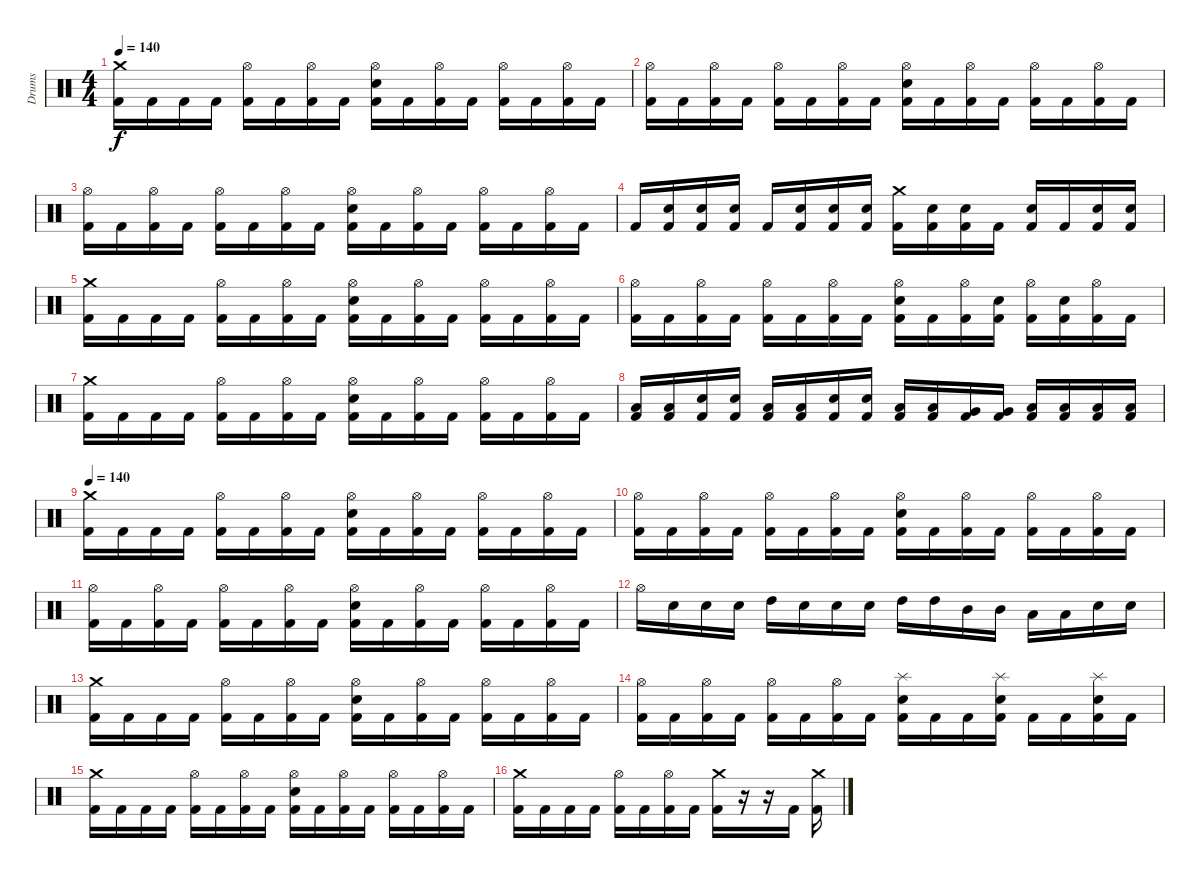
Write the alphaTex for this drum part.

\track ("Drums" "Drums") {instrument percussion}
\staff {score}
\articulation defaults
\ts (4 4)
\tempo 140
\clef neutral
\ks c
("Crash medium (hit)" "Kick (hit) 2").16{dy f} "Kick (hit) 2".16 "Kick (hit) 2".16 "Kick (hit) 2".16 ("Hi-Hat (open)" "Kick (hit) 2").16 "Kick (hit) 2".16 ("Hi-Hat (open)" "Kick (hit) 2").16 "Kick (hit) 2".16 ("Hi-Hat (open)" "Snare (hit) 2" "Kick (hit) 2").16 "Kick (hit) 2".16 ("Hi-Hat (open)" "Kick (hit) 2").16 "Kick (hit) 2".16 ("Hi-Hat (open)" "Kick (hit) 2").16 "Kick (hit) 2".16 ("Hi-Hat (open)" "Kick (hit) 2").16 "Kick (hit) 2".16 |
("Hi-Hat (open)" "Kick (hit) 2").16 "Kick (hit) 2".16 ("Hi-Hat (open)" "Kick (hit) 2").16 "Kick (hit) 2".16 ("Hi-Hat (open)" "Kick (hit) 2").16 "Kick (hit) 2".16 ("Hi-Hat (open)" "Kick (hit) 2").16 "Kick (hit) 2".16 ("Hi-Hat (open)" "Snare (hit) 2" "Kick (hit) 2").16 "Kick (hit) 2".16 ("Hi-Hat (open)" "Kick (hit) 2").16 "Kick (hit) 2".16 ("Hi-Hat (open)" "Kick (hit) 2").16 "Kick (hit) 2".16 ("Hi-Hat (open)" "Kick (hit) 2").16 "Kick (hit) 2".16 |
("Hi-Hat (open)" "Kick (hit) 2").16 "Kick (hit) 2".16 ("Hi-Hat (open)" "Kick (hit) 2").16 "Kick (hit) 2".16 ("Hi-Hat (open)" "Kick (hit) 2").16 "Kick (hit) 2".16 ("Hi-Hat (open)" "Kick (hit) 2").16 "Kick (hit) 2".16 ("Hi-Hat (open)" "Snare (hit) 2" "Kick (hit) 2").16 "Kick (hit) 2".16 ("Hi-Hat (open)" "Kick (hit) 2").16 "Kick (hit) 2".16 ("Hi-Hat (open)" "Kick (hit) 2").16 "Kick (hit) 2".16 ("Hi-Hat (open)" "Kick (hit) 2").16 "Kick (hit) 2".16 |
"Kick (hit) 2".16 ("Snare (hit) 2" "Kick (hit) 2").16 ("Snare (hit) 2" "Kick (hit) 2").16 ("Snare (hit) 2" "Kick (hit) 2").16 "Kick (hit) 2".16 ("Snare (hit) 2" "Kick (hit) 2").16 ("Snare (hit) 2" "Kick (hit) 2").16 ("Snare (hit) 2" "Kick (hit) 2").16 ("Crash medium (hit)" "Kick (hit) 2").16 ("Snare (hit) 2" "Kick (hit) 2").16 ("Snare (hit) 2" "Kick (hit) 2").16 "Kick (hit) 2".16 ("Snare (hit) 2" "Kick (hit) 2").16 "Kick (hit) 2".16 ("Snare (hit) 2" "Kick (hit) 2").16 ("Snare (hit) 2" "Kick (hit) 2").16 |
("Crash medium (hit)" "Kick (hit) 2").16 "Kick (hit) 2".16 "Kick (hit) 2".16 "Kick (hit) 2".16 ("Hi-Hat (open)" "Kick (hit) 2").16 "Kick (hit) 2".16 ("Hi-Hat (open)" "Kick (hit) 2").16 "Kick (hit) 2".16 ("Hi-Hat (open)" "Snare (hit) 2" "Kick (hit) 2").16 "Kick (hit) 2".16 ("Hi-Hat (open)" "Kick (hit) 2").16 "Kick (hit) 2".16 ("Hi-Hat (open)" "Kick (hit) 2").16 "Kick (hit) 2".16 ("Hi-Hat (open)" "Kick (hit) 2").16 "Kick (hit) 2".16 |
("Hi-Hat (open)" "Kick (hit) 2").16 "Kick (hit) 2".16 ("Hi-Hat (open)" "Kick (hit) 2").16 "Kick (hit) 2".16 ("Hi-Hat (open)" "Kick (hit) 2").16 "Kick (hit) 2".16 ("Hi-Hat (open)" "Kick (hit) 2").16 "Kick (hit) 2".16 ("Hi-Hat (open)" "Snare (hit) 2" "Kick (hit) 2").16 "Kick (hit) 2".16 ("Hi-Hat (open)" "Kick (hit) 2").16 ("Snare (hit) 2" "Kick (hit) 2").16 ("Hi-Hat (open)" "Kick (hit) 2").16 ("Snare (hit) 2" "Kick (hit) 2").16 ("Hi-Hat (open)" "Kick (hit) 2").16 "Kick (hit) 2".16 |
("Crash medium (hit)" "Kick (hit) 2").16 "Kick (hit) 2".16 "Kick (hit) 2".16 "Kick (hit) 2".16 ("Hi-Hat (open)" "Kick (hit) 2").16 "Kick (hit) 2".16 ("Hi-Hat (open)" "Kick (hit) 2").16 "Kick (hit) 2".16 ("Hi-Hat (open)" "Snare (hit) 2" "Kick (hit) 2").16 "Kick (hit) 2".16 ("Hi-Hat (open)" "Kick (hit) 2").16 "Kick (hit) 2".16 ("Hi-Hat (open)" "Kick (hit) 2").16 "Kick (hit) 2".16 ("Hi-Hat (open)" "Kick (hit) 2").16 "Kick (hit) 2".16 |
("Low Tom (hit)" "Kick (hit) 2").16 ("Low Tom (hit)" "Kick (hit) 2").16 ("Snare (hit) 2" "Kick (hit) 2").16 ("Snare (hit) 2" "Kick (hit) 2").16 ("Low Tom (hit)" "Kick (hit) 2").16 ("Low Tom (hit)" "Kick (hit) 2").16 ("Snare (hit) 2" "Kick (hit) 2").16 ("Snare (hit) 2" "Kick (hit) 2").16 ("Low Tom (hit)" "Kick (hit) 2").16 ("Low Tom (hit)" "Kick (hit) 2").16 ("Very Low Tom (hit)" "Kick (hit) 2").16 ("Very Low Tom (hit)" "Kick (hit) 2").16 ("Low Floor Tom (hit)" "Kick (hit) 2").16 ("Low Floor Tom (hit)" "Kick (hit) 2").16 ("Low Floor Tom (hit)" "Kick (hit) 2").16 ("Low Floor Tom (hit)" "Kick (hit) 2").16 |
\tempo 140
("Crash medium (hit)" "Kick (hit) 2").16 "Kick (hit) 2".16 "Kick (hit) 2".16 "Kick (hit) 2".16 ("Hi-Hat (open)" "Kick (hit) 2").16 "Kick (hit) 2".16 ("Hi-Hat (open)" "Kick (hit) 2").16 "Kick (hit) 2".16 ("Hi-Hat (open)" "Snare (hit) 2" "Kick (hit) 2").16 "Kick (hit) 2".16 ("Hi-Hat (open)" "Kick (hit) 2").16 "Kick (hit) 2".16 ("Hi-Hat (open)" "Kick (hit) 2").16 "Kick (hit) 2".16 ("Hi-Hat (open)" "Kick (hit) 2").16 "Kick (hit) 2".16 |
("Hi-Hat (open)" "Kick (hit) 2").16 "Kick (hit) 2".16 ("Hi-Hat (open)" "Kick (hit) 2").16 "Kick (hit) 2".16 ("Hi-Hat (open)" "Kick (hit) 2").16 "Kick (hit) 2".16 ("Hi-Hat (open)" "Kick (hit) 2").16 "Kick (hit) 2".16 ("Hi-Hat (open)" "Snare (hit) 2" "Kick (hit) 2").16 "Kick (hit) 2".16 ("Hi-Hat (open)" "Kick (hit) 2").16 "Kick (hit) 2".16 ("Hi-Hat (open)" "Kick (hit) 2").16 "Kick (hit) 2".16 ("Hi-Hat (open)" "Kick (hit) 2").16 "Kick (hit) 2".16 |
("Hi-Hat (open)" "Kick (hit) 2").16 "Kick (hit) 2".16 ("Hi-Hat (open)" "Kick (hit) 2").16 "Kick (hit) 2".16 ("Hi-Hat (open)" "Kick (hit) 2").16 "Kick (hit) 2".16 ("Hi-Hat (open)" "Kick (hit) 2").16 "Kick (hit) 2".16 ("Hi-Hat (open)" "Snare (hit) 2" "Kick (hit) 2").16 "Kick (hit) 2".16 ("Hi-Hat (open)" "Kick (hit) 2").16 "Kick (hit) 2".16 ("Hi-Hat (open)" "Kick (hit) 2").16 "Kick (hit) 2".16 ("Hi-Hat (open)" "Kick (hit) 2").16 "Kick (hit) 2".16 |
"Hi-Hat (open)".16 "Snare (hit) 2".16 "Snare (hit) 2".16 "Snare (hit) 2".16 "High Tom (hit)".16 "Snare (hit) 2".16 "Snare (hit) 2".16 "Snare (hit) 2".16 "High Tom (hit)".16 "High Tom (hit)".16 "Mid Tom (hit)".16 "Mid Tom (hit)".16 "Low Tom (hit)".16 "Low Tom (hit)".16 "Snare (hit) 2".16 "Snare (hit) 2".16 |
("Crash medium (hit)" "Kick (hit) 2").16 "Kick (hit) 2".16 "Kick (hit) 2".16 "Kick (hit) 2".16 ("Hi-Hat (open)" "Kick (hit) 2").16 "Kick (hit) 2".16 ("Hi-Hat (open)" "Kick (hit) 2").16 "Kick (hit) 2".16 ("Hi-Hat (open)" "Snare (hit) 2" "Kick (hit) 2").16 "Kick (hit) 2".16 ("Hi-Hat (open)" "Kick (hit) 2").16 "Kick (hit) 2".16 ("Hi-Hat (open)" "Kick (hit) 2").16 "Kick (hit) 2".16 ("Hi-Hat (open)" "Kick (hit) 2").16 "Kick (hit) 2".16 |
("Hi-Hat (open)" "Kick (hit) 2").16 "Kick (hit) 2".16 ("Hi-Hat (open)" "Kick (hit) 2").16 "Kick (hit) 2".16 ("Hi-Hat (open)" "Kick (hit) 2").16 "Kick (hit) 2".16 ("Hi-Hat (open)" "Kick (hit) 2").16 "Kick (hit) 2".16 ("Splash (hit)" "Snare (hit) 2" "Kick (hit) 2").16 "Kick (hit) 2".16 "Kick (hit) 2".16 ("Splash (hit)" "Snare (hit) 2" "Kick (hit) 2").16 "Kick (hit) 2".16 "Kick (hit) 2".16 ("Splash (hit)" "Snare (hit) 2" "Kick (hit) 2").16 "Kick (hit) 2".16 |
("Crash medium (hit)" "Kick (hit) 2").16 "Kick (hit) 2".16 "Kick (hit) 2".16 "Kick (hit) 2".16 ("Hi-Hat (open)" "Kick (hit) 2").16 "Kick (hit) 2".16 ("Hi-Hat (open)" "Kick (hit) 2").16 "Kick (hit) 2".16 ("Hi-Hat (open)" "Snare (hit) 2" "Kick (hit) 2").16 "Kick (hit) 2".16 ("Hi-Hat (open)" "Kick (hit) 2").16 "Kick (hit) 2".16 ("Hi-Hat (open)" "Kick (hit) 2").16 "Kick (hit) 2".16 ("Hi-Hat (open)" "Kick (hit) 2").16 "Kick (hit) 2".16 |
("Crash medium (hit)" "Kick (hit) 2").16 "Kick (hit) 2".16 "Kick (hit) 2".16 "Kick (hit) 2".16 ("Hi-Hat (open)" "Kick (hit) 2").16 "Kick (hit) 2".16 ("Hi-Hat (open)" "Kick (hit) 2").16 "Kick (hit) 2".16 ("Crash medium (hit)" "Kick (hit) 2").16 r.16 r.16 "Kick (hit) 2".16 ("Crash medium (hit)" "Kick (hit) 2").16
